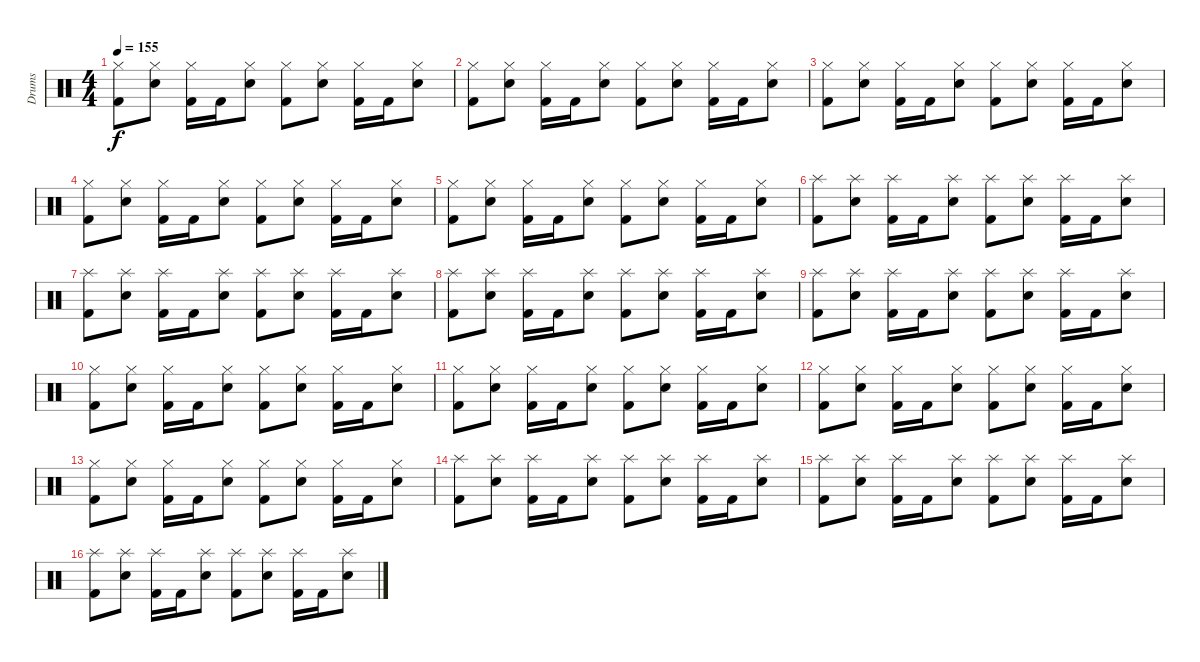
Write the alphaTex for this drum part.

\track ("Drums" "Drums") {instrument percussion}
\staff {score}
\articulation defaults
\ts (4 4)
\tempo 155
\clef neutral
\ks c
("Hi-Hat (closed)" "Kick (hit) 2").8{dy f} ("Hi-Hat (closed)" "Snare (hit) 2").8 ("Hi-Hat (closed)" "Kick (hit) 2").16 "Kick (hit) 2".16 ("Hi-Hat (closed)" "Snare (hit) 2").8 ("Hi-Hat (closed)" "Kick (hit) 2").8 ("Hi-Hat (closed)" "Snare (hit) 2").8 ("Hi-Hat (closed)" "Kick (hit) 2").16 "Kick (hit) 2".16 ("Hi-Hat (closed)" "Snare (hit) 2").8 |
("Hi-Hat (closed)" "Kick (hit) 2").8 ("Hi-Hat (closed)" "Snare (hit) 2").8 ("Hi-Hat (closed)" "Kick (hit) 2").16 "Kick (hit) 2".16 ("Hi-Hat (closed)" "Snare (hit) 2").8 ("Hi-Hat (closed)" "Kick (hit) 2").8 ("Hi-Hat (closed)" "Snare (hit) 2").8 ("Hi-Hat (closed)" "Kick (hit) 2").16 "Kick (hit) 2".16 ("Hi-Hat (closed)" "Snare (hit) 2").8 |
("Hi-Hat (closed)" "Kick (hit) 2").8 ("Hi-Hat (closed)" "Snare (hit) 2").8 ("Hi-Hat (closed)" "Kick (hit) 2").16 "Kick (hit) 2".16 ("Hi-Hat (closed)" "Snare (hit) 2").8 ("Hi-Hat (closed)" "Kick (hit) 2").8 ("Hi-Hat (closed)" "Snare (hit) 2").8 ("Hi-Hat (closed)" "Kick (hit) 2").16 "Kick (hit) 2".16 ("Hi-Hat (closed)" "Snare (hit) 2").8 |
("Hi-Hat (closed)" "Kick (hit) 2").8 ("Hi-Hat (closed)" "Snare (hit) 2").8 ("Hi-Hat (closed)" "Kick (hit) 2").16 "Kick (hit) 2".16 ("Hi-Hat (closed)" "Snare (hit) 2").8 ("Hi-Hat (closed)" "Kick (hit) 2").8 ("Hi-Hat (closed)" "Snare (hit) 2").8 ("Hi-Hat (closed)" "Kick (hit) 2").16 "Kick (hit) 2".16 ("Hi-Hat (closed)" "Snare (hit) 2").8 |
("Hi-Hat (closed)" "Kick (hit) 2").8 ("Hi-Hat (closed)" "Snare (hit) 2").8 ("Hi-Hat (closed)" "Kick (hit) 2").16 "Kick (hit) 2".16 ("Hi-Hat (closed)" "Snare (hit) 2").8 ("Hi-Hat (closed)" "Kick (hit) 2").8 ("Hi-Hat (closed)" "Snare (hit) 2").8 ("Hi-Hat (closed)" "Kick (hit) 2").16 "Kick (hit) 2".16 ("Hi-Hat (closed)" "Snare (hit) 2").8 |
("Splash (hit)" "Kick (hit) 2").8 ("Splash (hit)" "Snare (hit) 2").8 ("Splash (hit)" "Kick (hit) 2").16 "Kick (hit) 2".16 ("Splash (hit)" "Snare (hit) 2").8 ("Splash (hit)" "Kick (hit) 2").8 ("Splash (hit)" "Snare (hit) 2").8 ("Splash (hit)" "Kick (hit) 2").16 "Kick (hit) 2".16 ("Splash (hit)" "Snare (hit) 2").8 |
("Splash (hit)" "Kick (hit) 2").8 ("Splash (hit)" "Snare (hit) 2").8 ("Splash (hit)" "Kick (hit) 2").16 "Kick (hit) 2".16 ("Splash (hit)" "Snare (hit) 2").8 ("Splash (hit)" "Kick (hit) 2").8 ("Splash (hit)" "Snare (hit) 2").8 ("Splash (hit)" "Kick (hit) 2").16 "Kick (hit) 2".16 ("Splash (hit)" "Snare (hit) 2").8 |
("Splash (hit)" "Kick (hit) 2").8 ("Splash (hit)" "Snare (hit) 2").8 ("Splash (hit)" "Kick (hit) 2").16 "Kick (hit) 2".16 ("Splash (hit)" "Snare (hit) 2").8 ("Splash (hit)" "Kick (hit) 2").8 ("Splash (hit)" "Snare (hit) 2").8 ("Splash (hit)" "Kick (hit) 2").16 "Kick (hit) 2".16 ("Splash (hit)" "Snare (hit) 2").8 |
("Splash (hit)" "Kick (hit) 2").8 ("Splash (hit)" "Snare (hit) 2").8 ("Splash (hit)" "Kick (hit) 2").16 "Kick (hit) 2".16 ("Splash (hit)" "Snare (hit) 2").8 ("Splash (hit)" "Kick (hit) 2").8 ("Splash (hit)" "Snare (hit) 2").8 ("Splash (hit)" "Kick (hit) 2").16 "Kick (hit) 2".16 ("Splash (hit)" "Snare (hit) 2").8 |
("Hi-Hat (closed)" "Kick (hit) 2").8 ("Hi-Hat (closed)" "Snare (hit) 2").8 ("Hi-Hat (closed)" "Kick (hit) 2").16 "Kick (hit) 2".16 ("Hi-Hat (closed)" "Snare (hit) 2").8 ("Hi-Hat (closed)" "Kick (hit) 2").8 ("Hi-Hat (closed)" "Snare (hit) 2").8 ("Hi-Hat (closed)" "Kick (hit) 2").16 "Kick (hit) 2".16 ("Hi-Hat (closed)" "Snare (hit) 2").8 |
("Hi-Hat (closed)" "Kick (hit) 2").8 ("Hi-Hat (closed)" "Snare (hit) 2").8 ("Hi-Hat (closed)" "Kick (hit) 2").16 "Kick (hit) 2".16 ("Hi-Hat (closed)" "Snare (hit) 2").8 ("Hi-Hat (closed)" "Kick (hit) 2").8 ("Hi-Hat (closed)" "Snare (hit) 2").8 ("Hi-Hat (closed)" "Kick (hit) 2").16 "Kick (hit) 2".16 ("Hi-Hat (closed)" "Snare (hit) 2").8 |
("Hi-Hat (closed)" "Kick (hit) 2").8 ("Hi-Hat (closed)" "Snare (hit) 2").8 ("Hi-Hat (closed)" "Kick (hit) 2").16 "Kick (hit) 2".16 ("Hi-Hat (closed)" "Snare (hit) 2").8 ("Hi-Hat (closed)" "Kick (hit) 2").8 ("Hi-Hat (closed)" "Snare (hit) 2").8 ("Hi-Hat (closed)" "Kick (hit) 2").16 "Kick (hit) 2".16 ("Hi-Hat (closed)" "Snare (hit) 2").8 |
("Hi-Hat (closed)" "Kick (hit) 2").8 ("Hi-Hat (closed)" "Snare (hit) 2").8 ("Hi-Hat (closed)" "Kick (hit) 2").16 "Kick (hit) 2".16 ("Hi-Hat (closed)" "Snare (hit) 2").8 ("Hi-Hat (closed)" "Kick (hit) 2").8 ("Hi-Hat (closed)" "Snare (hit) 2").8 ("Hi-Hat (closed)" "Kick (hit) 2").16 "Kick (hit) 2".16 ("Hi-Hat (closed)" "Snare (hit) 2").8 |
("Splash (hit)" "Kick (hit) 2").8 ("Splash (hit)" "Snare (hit) 2").8 ("Splash (hit)" "Kick (hit) 2").16 "Kick (hit) 2".16 ("Splash (hit)" "Snare (hit) 2").8 ("Splash (hit)" "Kick (hit) 2").8 ("Splash (hit)" "Snare (hit) 2").8 ("Splash (hit)" "Kick (hit) 2").16 "Kick (hit) 2".16 ("Splash (hit)" "Snare (hit) 2").8 |
("Splash (hit)" "Kick (hit) 2").8 ("Splash (hit)" "Snare (hit) 2").8 ("Splash (hit)" "Kick (hit) 2").16 "Kick (hit) 2".16 ("Splash (hit)" "Snare (hit) 2").8 ("Splash (hit)" "Kick (hit) 2").8 ("Splash (hit)" "Snare (hit) 2").8 ("Splash (hit)" "Kick (hit) 2").16 "Kick (hit) 2".16 ("Splash (hit)" "Snare (hit) 2").8 |
("Splash (hit)" "Kick (hit) 2").8 ("Splash (hit)" "Snare (hit) 2").8 ("Splash (hit)" "Kick (hit) 2").16 "Kick (hit) 2".16 ("Splash (hit)" "Snare (hit) 2").8 ("Splash (hit)" "Kick (hit) 2").8 ("Splash (hit)" "Snare (hit) 2").8 ("Splash (hit)" "Kick (hit) 2").16 "Kick (hit) 2".16 ("Splash (hit)" "Snare (hit) 2").8
